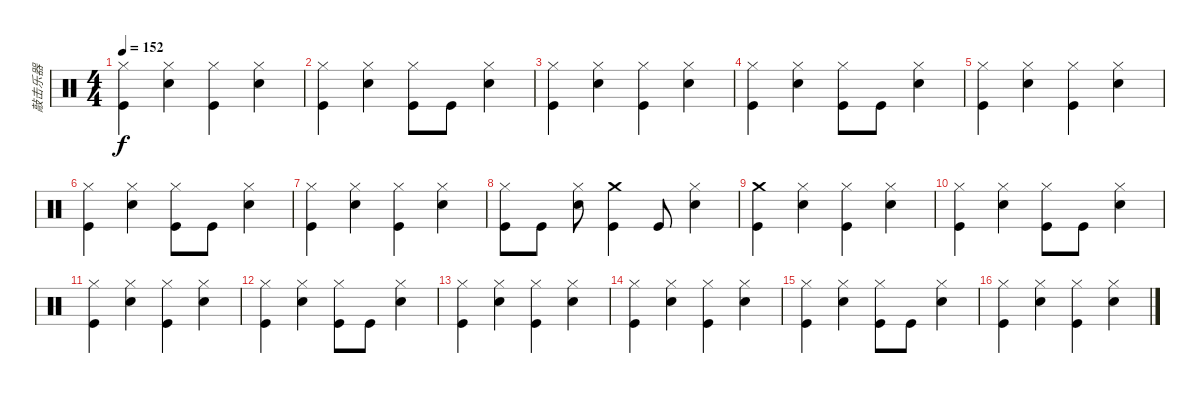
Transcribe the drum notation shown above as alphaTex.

\track ("敲击乐器" "敲击乐器") {instrument percussion}
\staff {score}
\articulation defaults
\ts (4 4)
\tempo 152
\clef neutral
\ks c
("Hi-Hat (closed)" "Kick (hit)").4{dy f} ("Hi-Hat (closed)" "Electric Snare (hit)").4 ("Hi-Hat (closed)" "Kick (hit)").4 ("Hi-Hat (closed)" "Electric Snare (hit)").4 |
("Hi-Hat (closed)" "Kick (hit)").4 ("Hi-Hat (closed)" "Electric Snare (hit)").4 ("Hi-Hat (closed)" "Kick (hit)").8 "Kick (hit)".8 ("Hi-Hat (closed)" "Electric Snare (hit)").4 |
("Hi-Hat (closed)" "Kick (hit)").4 ("Hi-Hat (closed)" "Electric Snare (hit)").4 ("Hi-Hat (closed)" "Kick (hit)").4 ("Hi-Hat (closed)" "Electric Snare (hit)").4 |
("Hi-Hat (closed)" "Kick (hit)").4 ("Hi-Hat (closed)" "Electric Snare (hit)").4 ("Hi-Hat (closed)" "Kick (hit)").8 "Kick (hit)".8 ("Hi-Hat (closed)" "Electric Snare (hit)").4 |
("Hi-Hat (closed)" "Kick (hit)").4 ("Hi-Hat (closed)" "Electric Snare (hit)").4 ("Hi-Hat (closed)" "Kick (hit)").4 ("Hi-Hat (closed)" "Electric Snare (hit)").4 |
("Hi-Hat (closed)" "Kick (hit)").4 ("Hi-Hat (closed)" "Electric Snare (hit)").4 ("Hi-Hat (closed)" "Kick (hit)").8 "Kick (hit)".8 ("Hi-Hat (closed)" "Electric Snare (hit)").4 |
("Hi-Hat (closed)" "Kick (hit)").4 ("Hi-Hat (closed)" "Electric Snare (hit)").4 ("Hi-Hat (closed)" "Kick (hit)").4 ("Hi-Hat (closed)" "Electric Snare (hit)").4 |
("Hi-Hat (closed)" "Kick (hit)").8 "Kick (hit)".8 ("Hi-Hat (closed)" "Electric Snare (hit)").8 ("Crash medium (hit)" "Kick (hit)").4 "Kick (hit)".8 ("Hi-Hat (closed)" "Electric Snare (hit)").4 |
("Crash medium (hit)" "Kick (hit)").4 ("Hi-Hat (closed)" "Electric Snare (hit)").4 ("Hi-Hat (closed)" "Kick (hit)").4 ("Hi-Hat (closed)" "Electric Snare (hit)").4 |
("Hi-Hat (closed)" "Kick (hit)").4 ("Hi-Hat (closed)" "Electric Snare (hit)").4 ("Hi-Hat (closed)" "Kick (hit)").8 "Kick (hit)".8 ("Hi-Hat (closed)" "Electric Snare (hit)").4 |
("Hi-Hat (closed)" "Kick (hit)").4 ("Hi-Hat (closed)" "Electric Snare (hit)").4 ("Hi-Hat (closed)" "Kick (hit)").4 ("Hi-Hat (closed)" "Electric Snare (hit)").4 |
("Hi-Hat (closed)" "Kick (hit)").4 ("Hi-Hat (closed)" "Electric Snare (hit)").4 ("Hi-Hat (closed)" "Kick (hit)").8 "Kick (hit)".8 ("Hi-Hat (closed)" "Electric Snare (hit)").4 |
("Hi-Hat (closed)" "Kick (hit)").4 ("Hi-Hat (closed)" "Electric Snare (hit)").4 ("Hi-Hat (closed)" "Kick (hit)").4 ("Hi-Hat (closed)" "Electric Snare (hit)").4 |
("Hi-Hat (closed)" "Kick (hit)").4 ("Hi-Hat (closed)" "Electric Snare (hit)").4 ("Hi-Hat (closed)" "Kick (hit)").4 ("Hi-Hat (closed)" "Electric Snare (hit)").4 |
("Hi-Hat (closed)" "Kick (hit)").4 ("Hi-Hat (closed)" "Electric Snare (hit)").4 ("Hi-Hat (closed)" "Kick (hit)").8 "Kick (hit)".8 ("Hi-Hat (closed)" "Electric Snare (hit)").4 |
("Hi-Hat (closed)" "Kick (hit)").4 ("Hi-Hat (closed)" "Electric Snare (hit)").4 ("Hi-Hat (closed)" "Kick (hit)").4 ("Hi-Hat (closed)" "Electric Snare (hit)").4
